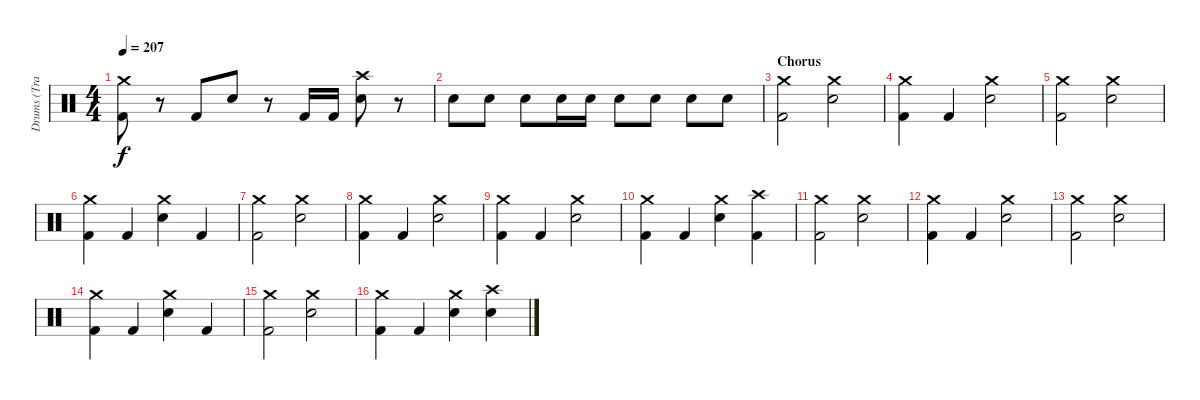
\track ("Drums (Travis)" "Drums (Tra") {instrument percussion}
\staff {score}
\articulation defaults
\ts (4 4)
\tempo 207
\clef neutral
\ks c
("Crash medium (hit)" "Kick (hit) 2").8{dy f} r.8 "Kick (hit) 2".8 "Snare (hit) 2".8 r.8 "Kick (hit) 2".16 "Kick (hit) 2".16 ("Crash high (hit)" "Snare (hit) 2").8 r.8 |
"Snare (hit) 2".8 "Snare (hit) 2".8 "Snare (hit) 2".8 "Snare (hit) 2".16 "Snare (hit) 2".16 "Snare (hit) 2".8 "Snare (hit) 2".8 "Snare (hit) 2".8 "Snare (hit) 2".8 |
\section ("" "Chorus")
("Crash medium (hit)" "Kick (hit) 2").2 ("Crash medium (hit)" "Snare (hit) 2").2 |
("Crash medium (hit)" "Kick (hit) 2").4 "Kick (hit) 2".4 ("Crash medium (hit)" "Snare (hit) 2").2 |
("Crash medium (hit)" "Kick (hit) 2").2 ("Crash medium (hit)" "Snare (hit) 2").2 |
("Crash medium (hit)" "Kick (hit) 2").4 "Kick (hit) 2".4 ("Crash medium (hit)" "Snare (hit) 2").4 "Kick (hit) 2".4 |
("Crash medium (hit)" "Kick (hit) 2").2 ("Crash medium (hit)" "Snare (hit) 2").2 |
("Crash medium (hit)" "Kick (hit) 2").4 "Kick (hit) 2".4 ("Crash medium (hit)" "Snare (hit) 2").2 |
("Crash medium (hit)" "Kick (hit) 2").4 "Kick (hit) 2".4 ("Crash medium (hit)" "Snare (hit) 2").2 |
("Crash medium (hit)" "Kick (hit) 2").4 "Kick (hit) 2".4 ("Crash medium (hit)" "Snare (hit) 2").4 ("Crash high (hit)" "Kick (hit) 2").4 |
("Crash medium (hit)" "Kick (hit) 2").2 ("Crash medium (hit)" "Snare (hit) 2").2 |
("Crash medium (hit)" "Kick (hit) 2").4 "Kick (hit) 2".4 ("Crash medium (hit)" "Snare (hit) 2").2 |
("Crash medium (hit)" "Kick (hit) 2").2 ("Crash medium (hit)" "Snare (hit) 2").2 |
("Crash medium (hit)" "Kick (hit) 2").4 "Kick (hit) 2".4 ("Crash medium (hit)" "Snare (hit) 2").4 "Kick (hit) 2".4 |
("Crash medium (hit)" "Kick (hit) 2").2 ("Crash medium (hit)" "Snare (hit) 2").2 |
("Crash medium (hit)" "Kick (hit) 2").4 "Kick (hit) 2".4 ("Crash medium (hit)" "Snare (hit) 2").4 ("Crash high (hit)" "Snare (hit) 2").4
